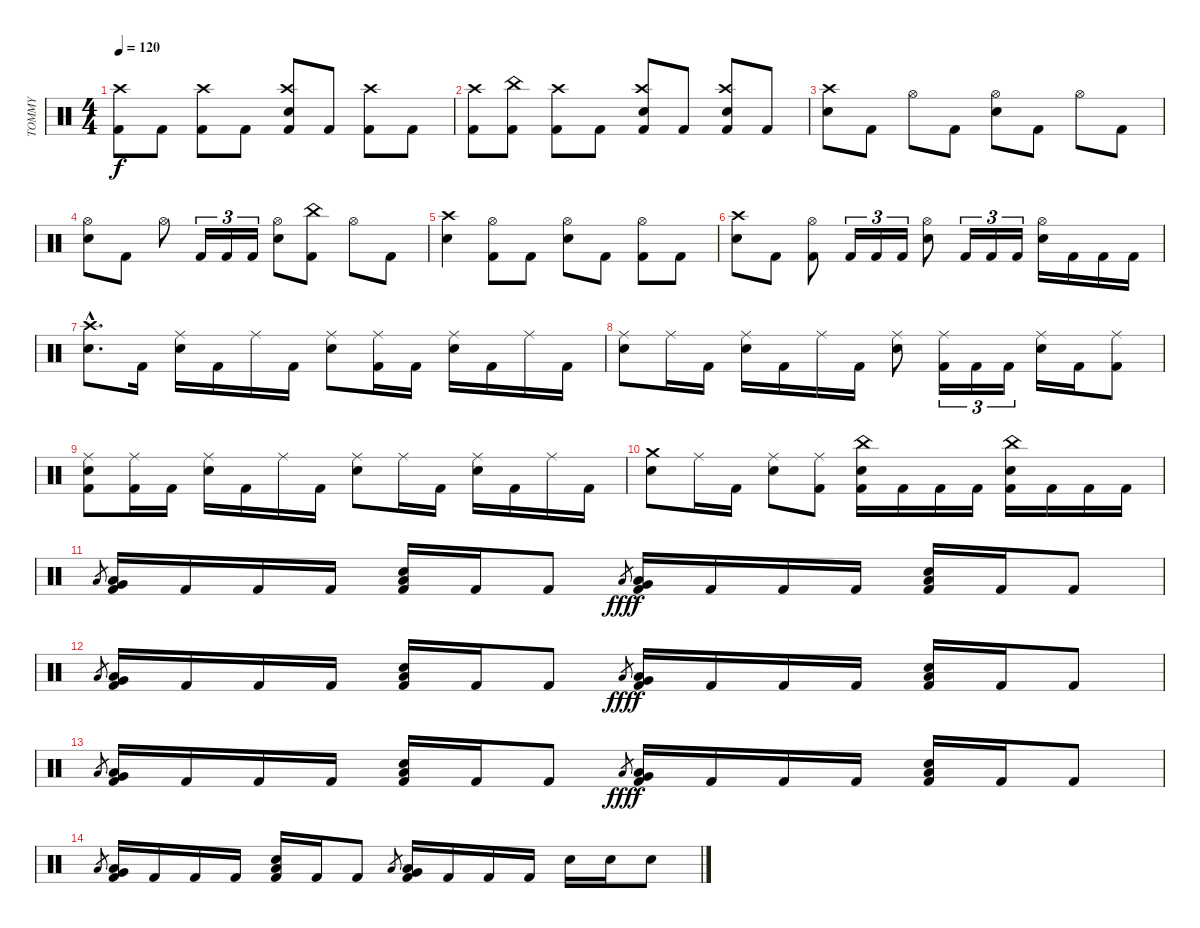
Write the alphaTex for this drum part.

\track ("TOMMY" "TOMMY") {instrument percussion}
\staff {score}
\articulation defaults
\ts (4 4)
\tempo 120
\clef neutral
\ks c
("Kick (hit) 2" "Crash high (hit)").8{dy f} "Kick (hit) 2".8 ("Kick (hit) 2" "Crash high (hit)").8 "Kick (hit) 2".8 ("Snare (hit) 2" "Kick (hit) 2" "Crash high (hit)").8 "Kick (hit) 2".8 ("Kick (hit) 2" "Crash high (hit)").8 "Kick (hit) 2".8 |
("Kick (hit) 2" "Crash high (hit)").8 ("Kick (hit) 2" "China (hit)").8 ("Kick (hit) 2" "Crash high (hit)").8 "Kick (hit) 2".8 ("Snare (hit) 2" "Kick (hit) 2" "Crash high (hit)").8 "Kick (hit) 2".8 ("Snare (hit) 2" "Kick (hit) 2" "Crash high (hit)").8 "Kick (hit) 2".8 |
("Snare (hit) 2" "Crash high (hit)").8 "Kick (hit) 2".8 "Hi-Hat (open)".8 "Kick (hit) 2".8 ("Snare (hit) 2" "Hi-Hat (open)").8 "Kick (hit) 2".8 "Hi-Hat (open)".8 "Kick (hit) 2".8 |
("Snare (hit) 2" "Hi-Hat (open)").8 "Kick (hit) 2".8 "Hi-Hat (open)".8 "Kick (hit) 2".16{tu (3 2)} "Kick (hit) 2".16{tu (3 2)} "Kick (hit) 2".16{tu (3 2)} ("Snare (hit) 2" "Hi-Hat (open)").8 ("Kick (hit) 2" "China (hit)").8 "Hi-Hat (open)".8 "Kick (hit) 2".8 |
("Snare (hit) 2" "Crash high (hit)").4 ("Kick (hit) 2" "Hi-Hat (open)").8 "Kick (hit) 2".8 ("Snare (hit) 2" "Hi-Hat (open)").8 "Kick (hit) 2".8 ("Kick (hit) 2" "Hi-Hat (open)").8 "Kick (hit) 2".8 |
("Snare (hit) 2" "Crash high (hit)").8 "Kick (hit) 2".8 ("Kick (hit) 2" "Hi-Hat (open)").8 "Kick (hit) 2".16{tu (3 2)} "Kick (hit) 2".16{tu (3 2)} "Kick (hit) 2".16{tu (3 2)} ("Snare (hit) 2" "Hi-Hat (open)").8 "Kick (hit) 2".16{tu (3 2)} "Kick (hit) 2".16{tu (3 2)} "Kick (hit) 2".16{tu (3 2)} ("Snare (hit) 2" "Hi-Hat (open)").16 "Kick (hit) 2".16 "Kick (hit) 2".16 "Kick (hit) 2".16 |
("Snare (hit) 2"{hac} "Crash high (hit)"{hac}).8{d} "Kick (hit) 2".16 ("Snare (hit) 2" "Ride (middle)").16 "Kick (hit) 2".16 "Ride (middle)".16 "Kick (hit) 2".16 ("Snare (hit) 2" "Ride (middle)").8 ("Kick (hit) 2" "Ride (middle)").16 "Kick (hit) 2".16 ("Snare (hit) 2" "Ride (middle)").16 "Kick (hit) 2".16 "Ride (middle)".16 "Kick (hit) 2".16 |
("Snare (hit) 2" "Ride (middle)").8 "Ride (middle)".16 "Kick (hit) 2".16 ("Snare (hit) 2" "Ride (middle)").16 "Kick (hit) 2".16 "Ride (middle)".16 "Kick (hit) 2".16 ("Snare (hit) 2" "Ride (middle)").8 ("Kick (hit) 2" "Ride (middle)").16{tu (3 2)} "Kick (hit) 2".16{tu (3 2)} "Kick (hit) 2".16{tu (3 2)} ("Snare (hit) 2" "Ride (middle)").16 "Kick (hit) 2".16 ("Kick (hit) 2" "Ride (middle)").8 |
("Snare (hit) 2" "Kick (hit) 2" "Ride (middle)").8 ("Kick (hit) 2" "Ride (middle)").16 "Kick (hit) 2".16 ("Snare (hit) 2" "Ride (middle)").16 "Kick (hit) 2".16 "Ride (middle)".16 "Kick (hit) 2".16 ("Snare (hit) 2" "Ride (middle)").8 "Ride (middle)".16 "Kick (hit) 2".16 ("Snare (hit) 2" "Ride (middle)").16 "Kick (hit) 2".16 "Ride (middle)".16 "Kick (hit) 2".16 |
("Snare (hit) 2" "Crash medium (hit)").8 "Ride (middle)".16 "Kick (hit) 2".16 ("Snare (hit) 2" "Ride (middle)").8 ("Kick (hit) 2" "Ride (middle)").8 ("Snare (hit) 2" "Kick (hit) 2" "China (hit)").16 "Kick (hit) 2".16 "Kick (hit) 2".16 "Kick (hit) 2".16 ("Snare (hit) 2" "Kick (hit) 2" "China (hit)").16 "Kick (hit) 2".16 "Kick (hit) 2".16 "Kick (hit) 2".16 |
"Low Floor Tom (hit)".8{gr} ("Kick (hit) 2" "Very Low Tom (hit)" "Low Floor Tom (hit)").16 "Kick (hit) 2".16 "Kick (hit) 2".16 "Kick (hit) 2".16 ("Snare (hit) 2" "Kick (hit) 2" "Low Floor Tom (hit)").16 "Kick (hit) 2".16 "Kick (hit) 2".8 "Low Floor Tom (hit)".8{gr dy fff} ("Kick (hit) 2" "Very Low Tom (hit)" "Low Floor Tom (hit)").16{dy f} "Kick (hit) 2".16 "Kick (hit) 2".16 "Kick (hit) 2".16 ("Snare (hit) 2" "Kick (hit) 2" "Low Floor Tom (hit)").16 "Kick (hit) 2".16 "Kick (hit) 2".8 |
"Low Floor Tom (hit)".8{gr} ("Kick (hit) 2" "Very Low Tom (hit)" "Low Floor Tom (hit)").16 "Kick (hit) 2".16 "Kick (hit) 2".16 "Kick (hit) 2".16 ("Snare (hit) 2" "Kick (hit) 2" "Low Floor Tom (hit)").16 "Kick (hit) 2".16 "Kick (hit) 2".8 "Low Floor Tom (hit)".8{gr dy fff} ("Kick (hit) 2" "Very Low Tom (hit)" "Low Floor Tom (hit)").16{dy f} "Kick (hit) 2".16 "Kick (hit) 2".16 "Kick (hit) 2".16 ("Snare (hit) 2" "Kick (hit) 2" "Low Floor Tom (hit)").16 "Kick (hit) 2".16 "Kick (hit) 2".8 |
"Low Floor Tom (hit)".8{gr} ("Kick (hit) 2" "Very Low Tom (hit)" "Low Floor Tom (hit)").16 "Kick (hit) 2".16 "Kick (hit) 2".16 "Kick (hit) 2".16 ("Snare (hit) 2" "Kick (hit) 2" "Low Floor Tom (hit)").16 "Kick (hit) 2".16 "Kick (hit) 2".8 "Low Floor Tom (hit)".8{gr dy fff} ("Kick (hit) 2" "Very Low Tom (hit)" "Low Floor Tom (hit)").16{dy f} "Kick (hit) 2".16 "Kick (hit) 2".16 "Kick (hit) 2".16 ("Snare (hit) 2" "Kick (hit) 2" "Low Floor Tom (hit)").16 "Kick (hit) 2".16 "Kick (hit) 2".8 |
"Low Floor Tom (hit)".8{gr} ("Kick (hit) 2" "Very Low Tom (hit)" "Low Floor Tom (hit)").16 "Kick (hit) 2".16 "Kick (hit) 2".16 "Kick (hit) 2".16 ("Snare (hit) 2" "Kick (hit) 2" "Low Floor Tom (hit)").16 "Kick (hit) 2".16 "Kick (hit) 2".8 "Low Floor Tom (hit)".8{gr} ("Kick (hit) 2" "Very Low Tom (hit)" "Low Floor Tom (hit)").16 "Kick (hit) 2".16 "Kick (hit) 2".16 "Kick (hit) 2".16 "Snare (hit) 2".16 "Snare (hit) 2".16 "Snare (hit) 2".8
